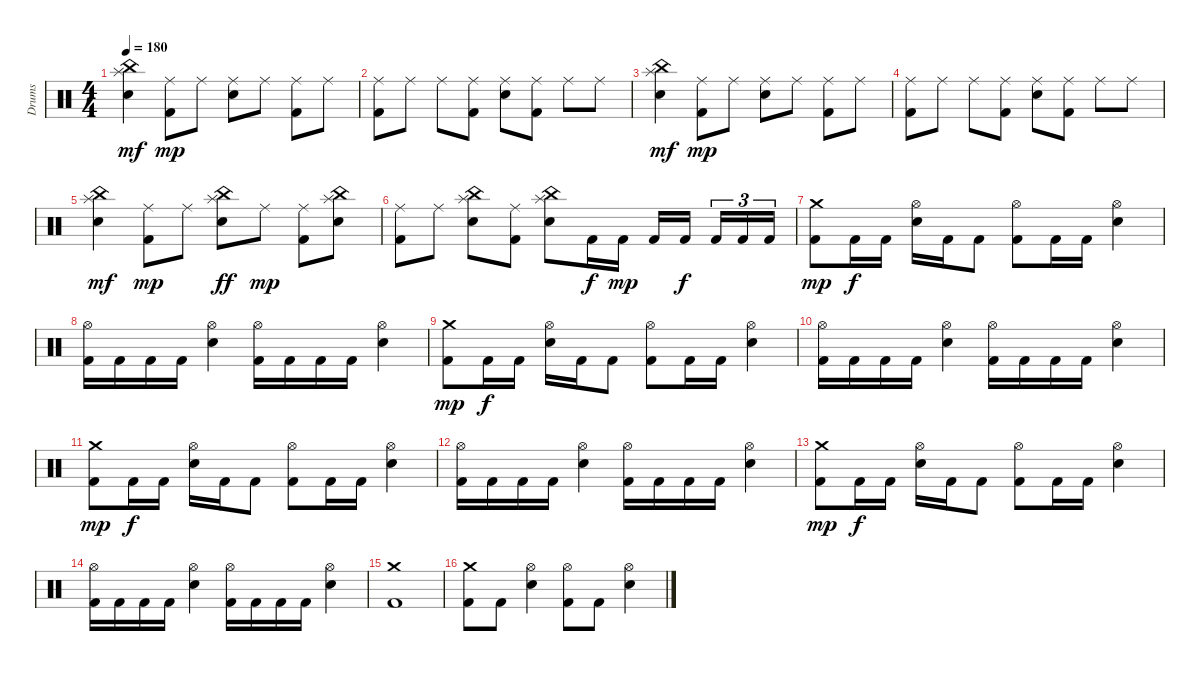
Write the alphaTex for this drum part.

\track ("Drums" "Drums") {instrument percussion}
\staff {score}
\articulation defaults
\ts (4 4)
\tempo 180
\clef neutral
\ks c
("Splash (hit)" "Electric Snare (hit)" "China (hit)").4{dy mf} ("Kick (hit) 2" "Ride (middle)").8{dy mp} "Ride (middle)".8 ("Electric Snare (hit)" "Ride (middle)").8 "Ride (middle)".8 ("Kick (hit) 2" "Ride (middle)").8 "Ride (middle)".8 |
("Kick (hit) 2" "Ride (middle)").8 "Ride (middle)".8 "Ride (middle)".8 ("Kick (hit) 2" "Ride (middle)").8 ("Electric Snare (hit)" "Ride (middle)").8 ("Kick (hit) 2" "Ride (middle)").8 "Ride (middle)".8 "Ride (middle)".8 |
("Splash (hit)" "Electric Snare (hit)" "China (hit)").4{dy mf} ("Kick (hit) 2" "Ride (middle)").8{dy mp} "Ride (middle)".8 ("Electric Snare (hit)" "Ride (middle)").8 "Ride (middle)".8 ("Kick (hit) 2" "Ride (middle)").8 "Ride (middle)".8 |
("Kick (hit) 2" "Ride (middle)").8 "Ride (middle)".8 "Ride (middle)".8 ("Kick (hit) 2" "Ride (middle)").8 ("Electric Snare (hit)" "Ride (middle)").8 ("Kick (hit) 2" "Ride (middle)").8 "Ride (middle)".8 "Ride (middle)".8 |
("Splash (hit)" "Electric Snare (hit)" "China (hit)").4{dy mf} ("Kick (hit) 2" "Ride (middle)").8{dy mp} "Ride (middle)".8 ("China (hit)" "Splash (hit)" "Electric Snare (hit)").8{dy ff} "Ride (middle)".8{dy mp} ("Kick (hit) 2" "Ride (middle)").8 ("China (hit)" "Splash (hit)" "Electric Snare (hit)").8 |
("Kick (hit) 2" "Ride (middle)").8 "Ride (middle)".8 ("China (hit)" "Electric Snare (hit)" "Splash (hit)").8 ("Kick (hit) 2" "Ride (middle)").8 ("China (hit)" "Electric Snare (hit)" "Splash (hit)").8 "Kick (hit) 2".16{dy f} "Kick (hit) 2".16{dy mp} "Kick (hit) 2".16 "Kick (hit) 2".16{dy f} "Kick (hit) 2".16{tu (3 2)} "Kick (hit) 2".16{tu (3 2)} "Kick (hit) 2".16{tu (3 2)} |
("Kick (hit) 2" "Crash medium (hit)").8{dy mp} "Kick (hit) 2".16{dy f} "Kick (hit) 2".16 ("Hi-Hat (open)" "Electric Snare (hit)").16 "Kick (hit) 2".16 "Kick (hit) 2".8 ("Hi-Hat (open)" "Kick (hit) 2").8 "Kick (hit) 2".16 "Kick (hit) 2".16 ("Electric Snare (hit)" "Hi-Hat (open)").4 |
("Hi-Hat (open)" "Kick (hit) 2").16 "Kick (hit) 2".16 "Kick (hit) 2".16 "Kick (hit) 2".16 ("Hi-Hat (open)" "Electric Snare (hit)").4 ("Hi-Hat (open)" "Kick (hit) 2").16 "Kick (hit) 2".16 "Kick (hit) 2".16 "Kick (hit) 2".16 ("Hi-Hat (open)" "Electric Snare (hit)").4 |
("Kick (hit) 2" "Crash medium (hit)").8{dy mp} "Kick (hit) 2".16{dy f} "Kick (hit) 2".16 ("Hi-Hat (open)" "Electric Snare (hit)").16 "Kick (hit) 2".16 "Kick (hit) 2".8 ("Hi-Hat (open)" "Kick (hit) 2").8 "Kick (hit) 2".16 "Kick (hit) 2".16 ("Electric Snare (hit)" "Hi-Hat (open)").4 |
("Hi-Hat (open)" "Kick (hit) 2").16 "Kick (hit) 2".16 "Kick (hit) 2".16 "Kick (hit) 2".16 ("Hi-Hat (open)" "Electric Snare (hit)").4 ("Hi-Hat (open)" "Kick (hit) 2").16 "Kick (hit) 2".16 "Kick (hit) 2".16 "Kick (hit) 2".16 ("Hi-Hat (open)" "Electric Snare (hit)").4 |
("Kick (hit) 2" "Crash medium (hit)").8{dy mp} "Kick (hit) 2".16{dy f} "Kick (hit) 2".16 ("Hi-Hat (open)" "Electric Snare (hit)").16 "Kick (hit) 2".16 "Kick (hit) 2".8 ("Hi-Hat (open)" "Kick (hit) 2").8 "Kick (hit) 2".16 "Kick (hit) 2".16 ("Electric Snare (hit)" "Hi-Hat (open)").4 |
("Hi-Hat (open)" "Kick (hit) 2").16 "Kick (hit) 2".16 "Kick (hit) 2".16 "Kick (hit) 2".16 ("Hi-Hat (open)" "Electric Snare (hit)").4 ("Hi-Hat (open)" "Kick (hit) 2").16 "Kick (hit) 2".16 "Kick (hit) 2".16 "Kick (hit) 2".16 ("Hi-Hat (open)" "Electric Snare (hit)").4 |
("Kick (hit) 2" "Crash medium (hit)").8{dy mp} "Kick (hit) 2".16{dy f} "Kick (hit) 2".16 ("Hi-Hat (open)" "Electric Snare (hit)").16 "Kick (hit) 2".16 "Kick (hit) 2".8 ("Hi-Hat (open)" "Kick (hit) 2").8 "Kick (hit) 2".16 "Kick (hit) 2".16 ("Electric Snare (hit)" "Hi-Hat (open)").4 |
("Hi-Hat (open)" "Kick (hit) 2").16 "Kick (hit) 2".16 "Kick (hit) 2".16 "Kick (hit) 2".16 ("Hi-Hat (open)" "Electric Snare (hit)").4 ("Hi-Hat (open)" "Kick (hit) 2").16 "Kick (hit) 2".16 "Kick (hit) 2".16 "Kick (hit) 2".16 ("Hi-Hat (open)" "Electric Snare (hit)").4 |
("Kick (hit) 2" "Crash medium (hit)").1 |
("Kick (hit) 2" "Crash medium (hit)").8 "Kick (hit) 2".8 ("Electric Snare (hit)" "Hi-Hat (open)").4 ("Kick (hit) 2" "Hi-Hat (open)").8 "Kick (hit) 2".8 ("Electric Snare (hit)" "Hi-Hat (open)").4
